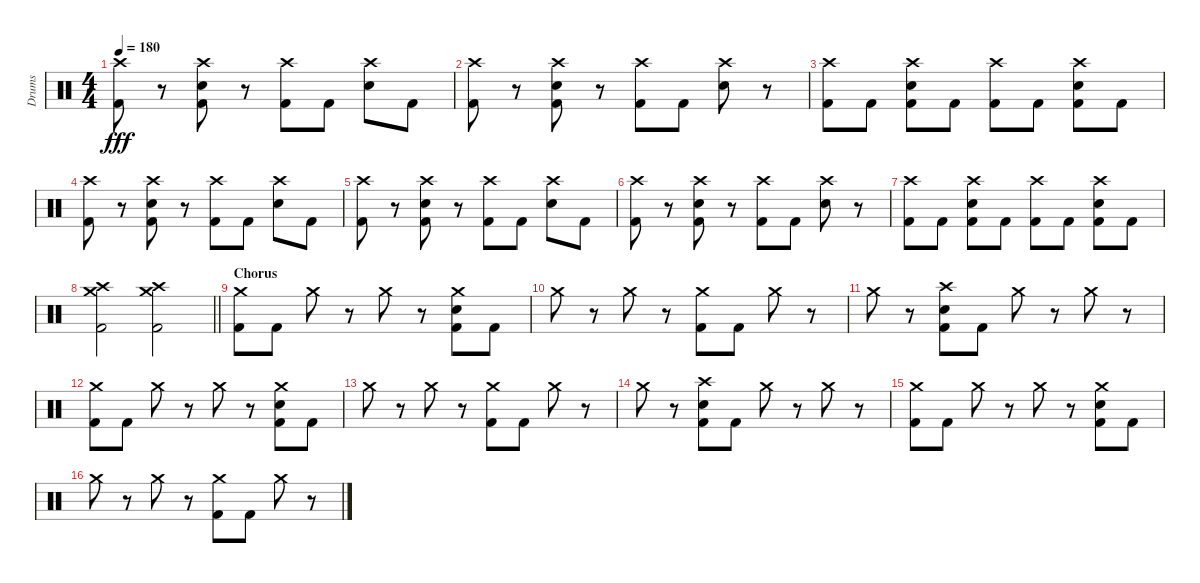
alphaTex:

\track ("Drums " "Drums ") {instrument percussion}
\staff {score}
\articulation defaults
\ts (4 4)
\tempo 180
\clef neutral
\ks c
("Crash high (hit)" "Kick (hit) 2").8{dy fff} r.8 ("Crash high (hit)" "Snare (hit) 2" "Kick (hit) 2").8 r.8 ("Crash high (hit)" "Kick (hit) 2").8 "Kick (hit) 2".8 ("Crash high (hit)" "Snare (hit) 2").8 "Kick (hit) 2".8 |
("Crash high (hit)" "Kick (hit) 2").8 r.8 ("Crash high (hit)" "Snare (hit) 2" "Kick (hit) 2").8 r.8 ("Crash high (hit)" "Kick (hit) 2").8 "Kick (hit) 2".8 ("Crash high (hit)" "Snare (hit) 2").8 r.8 |
("Crash high (hit)" "Kick (hit) 2").8 "Kick (hit) 2".8 ("Crash high (hit)" "Snare (hit) 2" "Kick (hit) 2").8 "Kick (hit) 2".8 ("Crash high (hit)" "Kick (hit) 2").8 "Kick (hit) 2".8 ("Crash high (hit)" "Snare (hit) 2" "Kick (hit) 2").8 "Kick (hit) 2".8 |
("Crash high (hit)" "Kick (hit) 2").8 r.8 ("Crash high (hit)" "Snare (hit) 2" "Kick (hit) 2").8 r.8 ("Crash high (hit)" "Kick (hit) 2").8 "Kick (hit) 2".8 ("Crash high (hit)" "Snare (hit) 2").8 "Kick (hit) 2".8 |
("Crash high (hit)" "Kick (hit) 2").8 r.8 ("Crash high (hit)" "Snare (hit) 2" "Kick (hit) 2").8 r.8 ("Crash high (hit)" "Kick (hit) 2").8 "Kick (hit) 2".8 ("Crash high (hit)" "Snare (hit) 2").8 "Kick (hit) 2".8 |
("Crash high (hit)" "Kick (hit) 2").8 r.8 ("Crash high (hit)" "Snare (hit) 2" "Kick (hit) 2").8 r.8 ("Crash high (hit)" "Kick (hit) 2").8 "Kick (hit) 2".8 ("Crash high (hit)" "Snare (hit) 2").8 r.8 |
("Crash high (hit)" "Kick (hit) 2").8 "Kick (hit) 2".8 ("Crash high (hit)" "Snare (hit) 2" "Kick (hit) 2").8 "Kick (hit) 2".8 ("Crash high (hit)" "Kick (hit) 2").8 "Kick (hit) 2".8 ("Crash high (hit)" "Snare (hit) 2" "Kick (hit) 2").8 "Kick (hit) 2".8 |
\barLineRight lightlight
("Crash medium (hit)" "Crash high (hit)" "Kick (hit) 2").2 ("Crash medium (hit)" "Crash high (hit)" "Kick (hit) 2").2 |
\section ("" "Chorus")
("Crash medium (hit)" "Kick (hit) 2").8 "Kick (hit) 2".8 "Crash medium (hit)".8 r.8 "Crash medium (hit)".8 r.8 ("Crash medium (hit)" "Snare (hit) 2" "Kick (hit) 2").8 "Kick (hit) 2".8 |
"Crash medium (hit)".8 r.8 "Crash medium (hit)".8 r.8 ("Crash medium (hit)" "Kick (hit) 2").8 "Kick (hit) 2".8 "Crash medium (hit)".8 r.8 |
"Crash medium (hit)".8 r.8 ("Crash high (hit)" "Snare (hit) 2" "Kick (hit) 2").8 "Kick (hit) 2".8 "Crash medium (hit)".8 r.8 "Crash medium (hit)".8 r.8 |
("Crash medium (hit)" "Kick (hit) 2").8 "Kick (hit) 2".8 "Crash medium (hit)".8 r.8 "Crash medium (hit)".8 r.8 ("Crash medium (hit)" "Snare (hit) 2" "Kick (hit) 2").8 "Kick (hit) 2".8 |
"Crash medium (hit)".8 r.8 "Crash medium (hit)".8 r.8 ("Crash medium (hit)" "Kick (hit) 2").8 "Kick (hit) 2".8 "Crash medium (hit)".8 r.8 |
"Crash medium (hit)".8 r.8 ("Crash high (hit)" "Snare (hit) 2" "Kick (hit) 2").8 "Kick (hit) 2".8 "Crash medium (hit)".8 r.8 "Crash medium (hit)".8 r.8 |
("Crash medium (hit)" "Kick (hit) 2").8 "Kick (hit) 2".8 "Crash medium (hit)".8 r.8 "Crash medium (hit)".8 r.8 ("Crash medium (hit)" "Snare (hit) 2" "Kick (hit) 2").8 "Kick (hit) 2".8 |
"Crash medium (hit)".8 r.8 "Crash medium (hit)".8 r.8 ("Crash medium (hit)" "Kick (hit) 2").8 "Kick (hit) 2".8 "Crash medium (hit)".8 r.8
